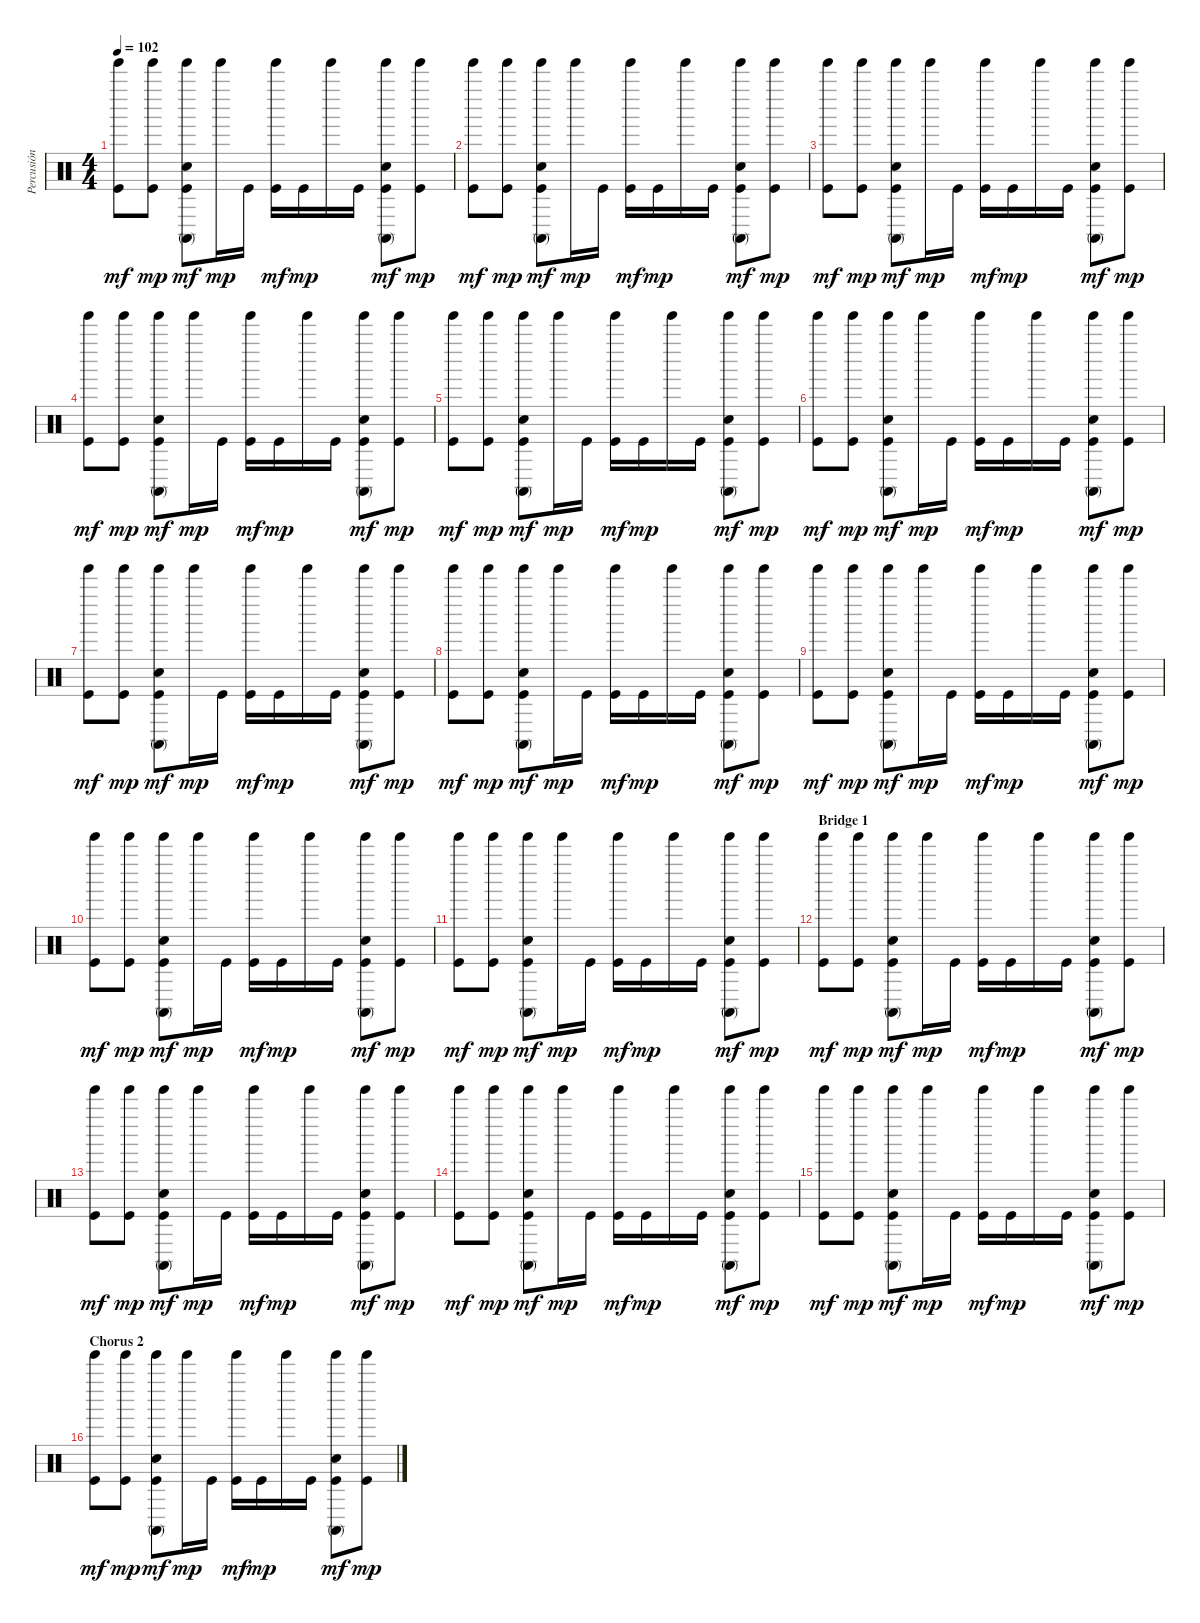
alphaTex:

\track ("Percusión" "Percusión") {instrument percussion}
\staff {score}
\articulation defaults
\ts (4 4)
\tempo 102
\clef neutral
\ks c
("Kick (hit)" "Tinkle Bell (hit)").8{dy mf} ("Kick (hit)" "Tinkle Bell (hit)").8{dy mp} ("Kick (hit)" "Snare (hit) 2" "Conga high (mute)" "Tinkle Bell (hit)").8{dy mf} "Tinkle Bell (hit)".16{dy mp} "Kick (hit)".16 ("Kick (hit)" "Tinkle Bell (hit)").16{dy mf} "Kick (hit)".16{dy mp} "Tinkle Bell (hit)".16 "Kick (hit)".16 ("Kick (hit)" "Snare (hit) 2" "Conga high (mute)" "Tinkle Bell (hit)").8{dy mf} ("Kick (hit)" "Tinkle Bell (hit)").8{dy mp} |
("Kick (hit)" "Tinkle Bell (hit)").8{dy mf} ("Kick (hit)" "Tinkle Bell (hit)").8{dy mp} ("Kick (hit)" "Snare (hit) 2" "Conga high (mute)" "Tinkle Bell (hit)").8{dy mf} "Tinkle Bell (hit)".16{dy mp} "Kick (hit)".16 ("Kick (hit)" "Tinkle Bell (hit)").16{dy mf} "Kick (hit)".16{dy mp} "Tinkle Bell (hit)".16 "Kick (hit)".16 ("Kick (hit)" "Snare (hit) 2" "Conga high (mute)" "Tinkle Bell (hit)").8{dy mf} ("Kick (hit)" "Tinkle Bell (hit)").8{dy mp} |
("Kick (hit)" "Tinkle Bell (hit)").8{dy mf} ("Kick (hit)" "Tinkle Bell (hit)").8{dy mp} ("Kick (hit)" "Snare (hit) 2" "Conga high (mute)" "Tinkle Bell (hit)").8{dy mf} "Tinkle Bell (hit)".16{dy mp} "Kick (hit)".16 ("Kick (hit)" "Tinkle Bell (hit)").16{dy mf} "Kick (hit)".16{dy mp} "Tinkle Bell (hit)".16 "Kick (hit)".16 ("Kick (hit)" "Snare (hit) 2" "Conga high (mute)" "Tinkle Bell (hit)").8{dy mf} ("Kick (hit)" "Tinkle Bell (hit)").8{dy mp} |
("Kick (hit)" "Tinkle Bell (hit)").8{dy mf} ("Kick (hit)" "Tinkle Bell (hit)").8{dy mp} ("Kick (hit)" "Snare (hit) 2" "Conga high (mute)" "Tinkle Bell (hit)").8{dy mf} "Tinkle Bell (hit)".16{dy mp} "Kick (hit)".16 ("Kick (hit)" "Tinkle Bell (hit)").16{dy mf} "Kick (hit)".16{dy mp} "Tinkle Bell (hit)".16 "Kick (hit)".16 ("Kick (hit)" "Snare (hit) 2" "Conga high (mute)" "Tinkle Bell (hit)").8{dy mf} ("Kick (hit)" "Tinkle Bell (hit)").8{dy mp} |
("Kick (hit)" "Tinkle Bell (hit)").8{dy mf} ("Kick (hit)" "Tinkle Bell (hit)").8{dy mp} ("Kick (hit)" "Snare (hit) 2" "Conga high (mute)" "Tinkle Bell (hit)").8{dy mf} "Tinkle Bell (hit)".16{dy mp} "Kick (hit)".16 ("Kick (hit)" "Tinkle Bell (hit)").16{dy mf} "Kick (hit)".16{dy mp} "Tinkle Bell (hit)".16 "Kick (hit)".16 ("Kick (hit)" "Snare (hit) 2" "Conga high (mute)" "Tinkle Bell (hit)").8{dy mf} ("Kick (hit)" "Tinkle Bell (hit)").8{dy mp} |
("Kick (hit)" "Tinkle Bell (hit)").8{dy mf} ("Kick (hit)" "Tinkle Bell (hit)").8{dy mp} ("Kick (hit)" "Snare (hit) 2" "Conga high (mute)" "Tinkle Bell (hit)").8{dy mf} "Tinkle Bell (hit)".16{dy mp} "Kick (hit)".16 ("Kick (hit)" "Tinkle Bell (hit)").16{dy mf} "Kick (hit)".16{dy mp} "Tinkle Bell (hit)".16 "Kick (hit)".16 ("Kick (hit)" "Snare (hit) 2" "Conga high (mute)" "Tinkle Bell (hit)").8{dy mf} ("Kick (hit)" "Tinkle Bell (hit)").8{dy mp} |
("Kick (hit)" "Tinkle Bell (hit)").8{dy mf} ("Kick (hit)" "Tinkle Bell (hit)").8{dy mp} ("Kick (hit)" "Snare (hit) 2" "Conga high (mute)" "Tinkle Bell (hit)").8{dy mf} "Tinkle Bell (hit)".16{dy mp} "Kick (hit)".16 ("Kick (hit)" "Tinkle Bell (hit)").16{dy mf} "Kick (hit)".16{dy mp} "Tinkle Bell (hit)".16 "Kick (hit)".16 ("Kick (hit)" "Snare (hit) 2" "Conga high (mute)" "Tinkle Bell (hit)").8{dy mf} ("Kick (hit)" "Tinkle Bell (hit)").8{dy mp} |
("Kick (hit)" "Tinkle Bell (hit)").8{dy mf} ("Kick (hit)" "Tinkle Bell (hit)").8{dy mp} ("Kick (hit)" "Snare (hit) 2" "Conga high (mute)" "Tinkle Bell (hit)").8{dy mf} "Tinkle Bell (hit)".16{dy mp} "Kick (hit)".16 ("Kick (hit)" "Tinkle Bell (hit)").16{dy mf} "Kick (hit)".16{dy mp} "Tinkle Bell (hit)".16 "Kick (hit)".16 ("Kick (hit)" "Snare (hit) 2" "Conga high (mute)" "Tinkle Bell (hit)").8{dy mf} ("Kick (hit)" "Tinkle Bell (hit)").8{dy mp} |
("Kick (hit)" "Tinkle Bell (hit)").8{dy mf} ("Kick (hit)" "Tinkle Bell (hit)").8{dy mp} ("Kick (hit)" "Snare (hit) 2" "Conga high (mute)" "Tinkle Bell (hit)").8{dy mf} "Tinkle Bell (hit)".16{dy mp} "Kick (hit)".16 ("Kick (hit)" "Tinkle Bell (hit)").16{dy mf} "Kick (hit)".16{dy mp} "Tinkle Bell (hit)".16 "Kick (hit)".16 ("Kick (hit)" "Snare (hit) 2" "Conga high (mute)" "Tinkle Bell (hit)").8{dy mf} ("Kick (hit)" "Tinkle Bell (hit)").8{dy mp} |
("Kick (hit)" "Tinkle Bell (hit)").8{dy mf} ("Kick (hit)" "Tinkle Bell (hit)").8{dy mp} ("Kick (hit)" "Snare (hit) 2" "Conga high (mute)" "Tinkle Bell (hit)").8{dy mf} "Tinkle Bell (hit)".16{dy mp} "Kick (hit)".16 ("Kick (hit)" "Tinkle Bell (hit)").16{dy mf} "Kick (hit)".16{dy mp} "Tinkle Bell (hit)".16 "Kick (hit)".16 ("Kick (hit)" "Snare (hit) 2" "Conga high (mute)" "Tinkle Bell (hit)").8{dy mf} ("Kick (hit)" "Tinkle Bell (hit)").8{dy mp} |
("Kick (hit)" "Tinkle Bell (hit)").8{dy mf} ("Kick (hit)" "Tinkle Bell (hit)").8{dy mp} ("Kick (hit)" "Snare (hit) 2" "Conga high (mute)" "Tinkle Bell (hit)").8{dy mf} "Tinkle Bell (hit)".16{dy mp} "Kick (hit)".16 ("Kick (hit)" "Tinkle Bell (hit)").16{dy mf} "Kick (hit)".16{dy mp} "Tinkle Bell (hit)".16 "Kick (hit)".16 ("Kick (hit)" "Snare (hit) 2" "Conga high (mute)" "Tinkle Bell (hit)").8{dy mf} ("Kick (hit)" "Tinkle Bell (hit)").8{dy mp} |
\section ("" "Bridge 1")
("Kick (hit)" "Tinkle Bell (hit)").8{dy mf} ("Kick (hit)" "Tinkle Bell (hit)").8{dy mp} ("Kick (hit)" "Snare (hit) 2" "Conga high (mute)" "Tinkle Bell (hit)").8{dy mf} "Tinkle Bell (hit)".16{dy mp} "Kick (hit)".16 ("Kick (hit)" "Tinkle Bell (hit)").16{dy mf} "Kick (hit)".16{dy mp} "Tinkle Bell (hit)".16 "Kick (hit)".16 ("Kick (hit)" "Snare (hit) 2" "Conga high (mute)" "Tinkle Bell (hit)").8{dy mf} ("Kick (hit)" "Tinkle Bell (hit)").8{dy mp} |
("Kick (hit)" "Tinkle Bell (hit)").8{dy mf} ("Kick (hit)" "Tinkle Bell (hit)").8{dy mp} ("Kick (hit)" "Snare (hit) 2" "Conga high (mute)" "Tinkle Bell (hit)").8{dy mf} "Tinkle Bell (hit)".16{dy mp} "Kick (hit)".16 ("Kick (hit)" "Tinkle Bell (hit)").16{dy mf} "Kick (hit)".16{dy mp} "Tinkle Bell (hit)".16 "Kick (hit)".16 ("Kick (hit)" "Snare (hit) 2" "Conga high (mute)" "Tinkle Bell (hit)").8{dy mf} ("Kick (hit)" "Tinkle Bell (hit)").8{dy mp} |
("Kick (hit)" "Tinkle Bell (hit)").8{dy mf} ("Kick (hit)" "Tinkle Bell (hit)").8{dy mp} ("Kick (hit)" "Snare (hit) 2" "Conga high (mute)" "Tinkle Bell (hit)").8{dy mf} "Tinkle Bell (hit)".16{dy mp} "Kick (hit)".16 ("Kick (hit)" "Tinkle Bell (hit)").16{dy mf} "Kick (hit)".16{dy mp} "Tinkle Bell (hit)".16 "Kick (hit)".16 ("Kick (hit)" "Snare (hit) 2" "Conga high (mute)" "Tinkle Bell (hit)").8{dy mf} ("Kick (hit)" "Tinkle Bell (hit)").8{dy mp} |
("Kick (hit)" "Tinkle Bell (hit)").8{dy mf} ("Kick (hit)" "Tinkle Bell (hit)").8{dy mp} ("Kick (hit)" "Snare (hit) 2" "Conga high (mute)" "Tinkle Bell (hit)").8{dy mf} "Tinkle Bell (hit)".16{dy mp} "Kick (hit)".16 ("Kick (hit)" "Tinkle Bell (hit)").16{dy mf} "Kick (hit)".16{dy mp} "Tinkle Bell (hit)".16 "Kick (hit)".16 ("Kick (hit)" "Snare (hit) 2" "Conga high (mute)" "Tinkle Bell (hit)").8{dy mf} ("Kick (hit)" "Tinkle Bell (hit)").8{dy mp} |
\section ("" "Chorus 2")
("Kick (hit)" "Tinkle Bell (hit)").8{dy mf} ("Kick (hit)" "Tinkle Bell (hit)").8{dy mp} ("Kick (hit)" "Snare (hit) 2" "Conga high (mute)" "Tinkle Bell (hit)").8{dy mf} "Tinkle Bell (hit)".16{dy mp} "Kick (hit)".16 ("Kick (hit)" "Tinkle Bell (hit)").16{dy mf} "Kick (hit)".16{dy mp} "Tinkle Bell (hit)".16 "Kick (hit)".16 ("Kick (hit)" "Snare (hit) 2" "Conga high (mute)" "Tinkle Bell (hit)").8{dy mf} ("Kick (hit)" "Tinkle Bell (hit)").8{dy mp}
